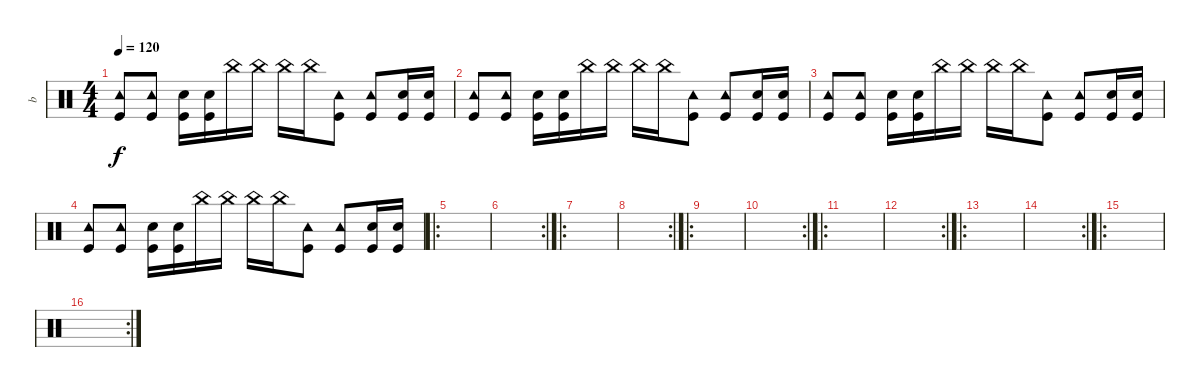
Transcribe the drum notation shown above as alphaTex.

\track ("b" "b") {instrument percussion}
\staff {score}
\articulation defaults
\ts (4 4)
\tempo 120
\clef neutral
\ks c
("Tambourine (hit)" "Kick (hit)").8{dy f} ("Tambourine (hit)" "Kick (hit)").8 ("Electric Snare (hit)" "Kick (hit)").16 ("Electric Snare (hit)" "Kick (hit)").16 "China (hit)".16 "China (hit)".16 "China (hit)".16 "China (hit)".16 ("Tambourine (hit)" "Kick (hit)").8 ("Tambourine (hit)" "Kick (hit)").8 ("Electric Snare (hit)" "Kick (hit)").16 ("Electric Snare (hit)" "Kick (hit)").16 |
("Tambourine (hit)" "Kick (hit)").8 ("Tambourine (hit)" "Kick (hit)").8 ("Electric Snare (hit)" "Kick (hit)").16 ("Electric Snare (hit)" "Kick (hit)").16 "China (hit)".16 "China (hit)".16 "China (hit)".16 "China (hit)".16 ("Tambourine (hit)" "Kick (hit)").8 ("Tambourine (hit)" "Kick (hit)").8 ("Electric Snare (hit)" "Kick (hit)").16 ("Electric Snare (hit)" "Kick (hit)").16 |
("Tambourine (hit)" "Kick (hit)").8 ("Tambourine (hit)" "Kick (hit)").8 ("Electric Snare (hit)" "Kick (hit)").16 ("Electric Snare (hit)" "Kick (hit)").16 "China (hit)".16 "China (hit)".16 "China (hit)".16 "China (hit)".16 ("Tambourine (hit)" "Kick (hit)").8 ("Tambourine (hit)" "Kick (hit)").8 ("Electric Snare (hit)" "Kick (hit)").16 ("Electric Snare (hit)" "Kick (hit)").16 |
("Tambourine (hit)" "Kick (hit)").8 ("Tambourine (hit)" "Kick (hit)").8 ("Electric Snare (hit)" "Kick (hit)").16 ("Electric Snare (hit)" "Kick (hit)").16 "China (hit)".16 "China (hit)".16 "China (hit)".16 "China (hit)".16 ("Tambourine (hit)" "Kick (hit)").8 ("Tambourine (hit)" "Kick (hit)").8 ("Electric Snare (hit)" "Kick (hit)").16 ("Electric Snare (hit)" "Kick (hit)").16 |
\ro
|
\rc 2
|
\ro
|
\rc 2
|
\ro
|
\rc 2
|
\ro
|
\rc 2
|
\ro
|
\rc 2
|
\ro
|
\rc 2
